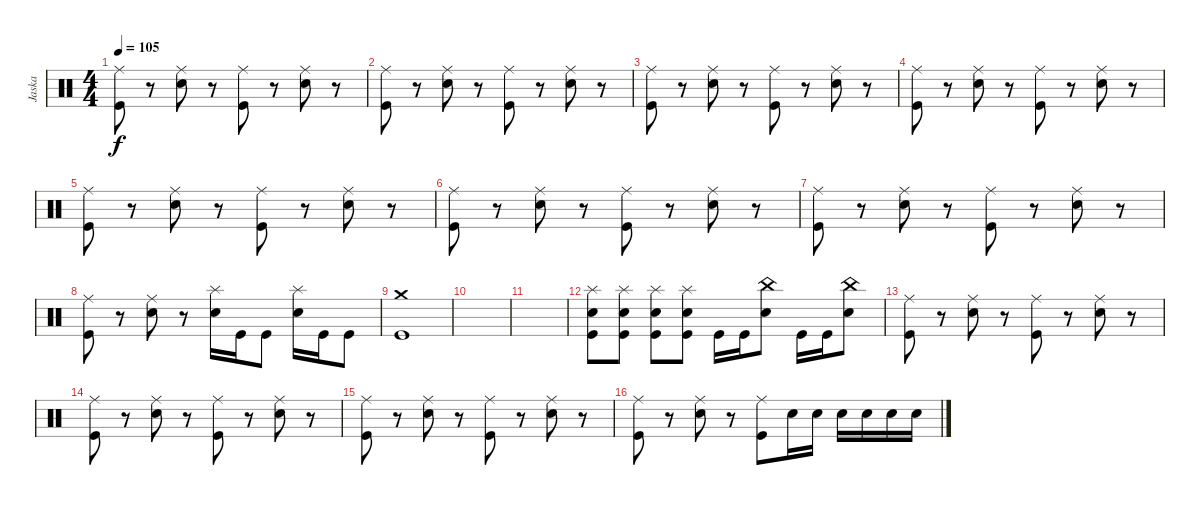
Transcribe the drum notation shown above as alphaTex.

\track ("Jaska" "Jaska") {instrument percussion}
\staff {score}
\articulation defaults
\ts (4 4)
\tempo 105
\clef neutral
\ks c
("Kick (hit)" "Ride (middle)").8{dy f} r.8 ("Snare (hit) 2" "Ride (middle)").8 r.8 ("Kick (hit)" "Ride (middle)").8 r.8 ("Snare (hit) 2" "Ride (middle)").8 r.8 |
("Kick (hit)" "Ride (middle)").8 r.8 ("Snare (hit) 2" "Ride (middle)").8 r.8 ("Kick (hit)" "Ride (middle)").8 r.8 ("Snare (hit) 2" "Ride (middle)").8 r.8 |
("Kick (hit)" "Ride (middle)").8 r.8 ("Snare (hit) 2" "Ride (middle)").8 r.8 ("Kick (hit)" "Ride (middle)").8 r.8 ("Snare (hit) 2" "Ride (middle)").8 r.8 |
("Kick (hit)" "Ride (middle)").8 r.8 ("Snare (hit) 2" "Ride (middle)").8 r.8 ("Kick (hit)" "Ride (middle)").8 r.8 ("Snare (hit) 2" "Ride (middle)").8 r.8 |
("Kick (hit)" "Ride (middle)").8 r.8 ("Snare (hit) 2" "Ride (middle)").8 r.8 ("Kick (hit)" "Ride (middle)").8 r.8 ("Snare (hit) 2" "Ride (middle)").8 r.8 |
("Kick (hit)" "Ride (middle)").8 r.8 ("Snare (hit) 2" "Ride (middle)").8 r.8 ("Kick (hit)" "Ride (middle)").8 r.8 ("Snare (hit) 2" "Ride (middle)").8 r.8 |
("Kick (hit)" "Ride (middle)").8 r.8 ("Snare (hit) 2" "Ride (middle)").8 r.8 ("Kick (hit)" "Ride (middle)").8 r.8 ("Snare (hit) 2" "Ride (middle)").8 r.8 |
("Kick (hit)" "Ride (middle)").8 r.8 ("Snare (hit) 2" "Ride (middle)").8 r.8 ("Snare (hit) 2" "Splash (hit)").16 "Kick (hit)".16 "Kick (hit)".8 ("Snare (hit) 2" "Splash (hit)").16 "Kick (hit)".16 "Kick (hit)".8 |
("Kick (hit)" "Crash medium (hit)").1 |
|
|
("Kick (hit)" "Snare (hit) 2" "Splash (hit)").8 ("Kick (hit)" "Snare (hit) 2" "Splash (hit)").8 ("Kick (hit)" "Snare (hit) 2" "Splash (hit)").8 ("Kick (hit)" "Snare (hit) 2" "Splash (hit)").8 "Kick (hit)".16 "Kick (hit)".16 ("Snare (hit) 2" "China (hit)").8 "Kick (hit)".16 "Kick (hit)".16 ("Snare (hit) 2" "China (hit)").8 |
("Kick (hit)" "Ride (middle)").8 r.8 ("Snare (hit) 2" "Ride (middle)").8 r.8 ("Kick (hit)" "Ride (middle)").8 r.8 ("Snare (hit) 2" "Ride (middle)").8 r.8 |
("Kick (hit)" "Ride (middle)").8 r.8 ("Snare (hit) 2" "Ride (middle)").8 r.8 ("Kick (hit)" "Ride (middle)").8 r.8 ("Snare (hit) 2" "Ride (middle)").8 r.8 |
("Kick (hit)" "Ride (middle)").8 r.8 ("Snare (hit) 2" "Ride (middle)").8 r.8 ("Kick (hit)" "Ride (middle)").8 r.8 ("Snare (hit) 2" "Ride (middle)").8 r.8 |
("Kick (hit)" "Ride (middle)").8 r.8 ("Snare (hit) 2" "Ride (middle)").8 r.8 ("Kick (hit)" "Ride (middle)").8 "Snare (hit) 2".16 "Snare (hit) 2".16 "Snare (hit) 2".16 "Snare (hit) 2".16 "Snare (hit) 2".16 "Snare (hit) 2".16
